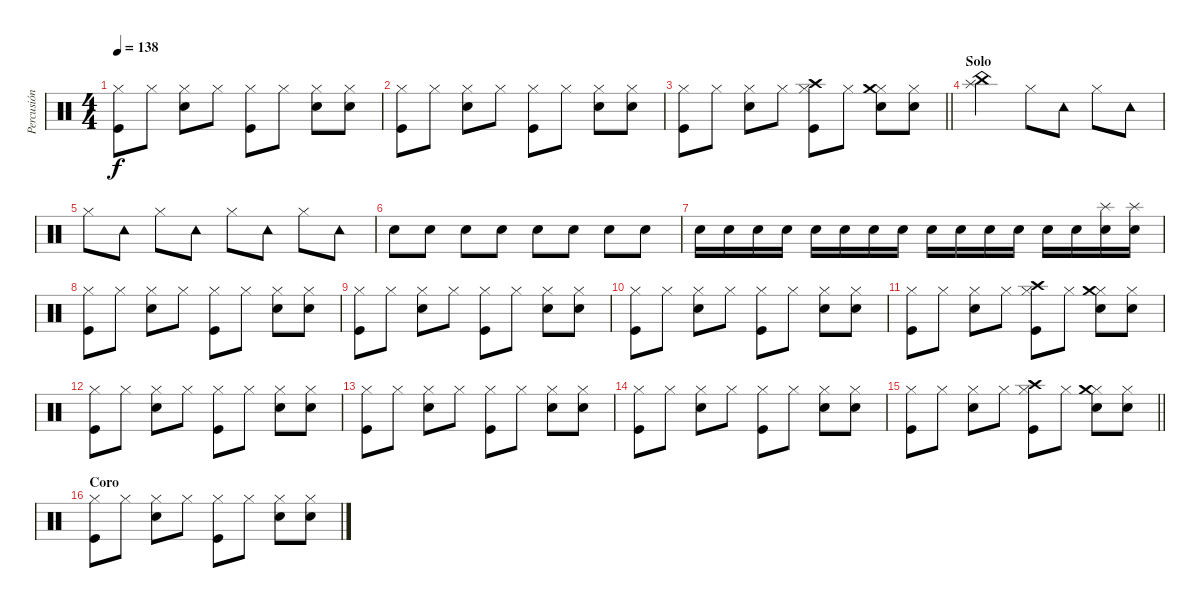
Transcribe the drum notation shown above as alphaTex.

\track ("Percusión" "Percusión") {instrument percussion}
\staff {score}
\articulation defaults
\ts (4 4)
\tempo 138
\clef neutral
\ks c
("Hi-Hat (closed)" "Kick (hit)").8{dy f} "Hi-Hat (closed)".8 ("Hi-Hat (closed)" "Snare (hit) 2").8 "Hi-Hat (closed)".8 ("Hi-Hat (closed)" "Kick (hit)").8 "Hi-Hat (closed)".8 ("Hi-Hat (closed)" "Snare (hit) 2").8 ("Hi-Hat (closed)" "Snare (hit) 2").8 |
("Hi-Hat (closed)" "Kick (hit)").8 "Hi-Hat (closed)".8 ("Hi-Hat (closed)" "Snare (hit) 2").8 "Hi-Hat (closed)".8 ("Hi-Hat (closed)" "Kick (hit)").8 "Hi-Hat (closed)".8 ("Hi-Hat (closed)" "Snare (hit) 2").8 ("Hi-Hat (closed)" "Snare (hit) 2").8 |
\barLineRight lightlight
("Hi-Hat (closed)" "Kick (hit)").8 "Hi-Hat (closed)".8 ("Hi-Hat (closed)" "Snare (hit) 2").8 "Hi-Hat (closed)".8 ("Hi-Hat (closed)" "Kick (hit)" "Crash high (hit)").8 "Hi-Hat (closed)".8 ("Hi-Hat (closed)" "Snare (hit) 2" "Crash medium (hit)").8 ("Hi-Hat (closed)" "Snare (hit) 2").8 |
\section ("" "Solo")
("Splash (hit)" "China (hit)").2 "Hi-Hat (closed)".8 "Tambourine (hit)".8 "Hi-Hat (closed)".8 "Tambourine (hit)".8 |
"Hi-Hat (closed)".8 "Tambourine (hit)".8 "Hi-Hat (closed)".8 "Tambourine (hit)".8 "Hi-Hat (closed)".8 "Tambourine (hit)".8 "Hi-Hat (closed)".8 "Tambourine (hit)".8 |
"Snare (hit) 2".8 "Snare (hit) 2".8 "Snare (hit) 2".8 "Snare (hit) 2".8 "Snare (hit) 2".8 "Snare (hit) 2".8 "Snare (hit) 2".8 "Snare (hit) 2".8 |
"Snare (hit) 2".16 "Snare (hit) 2".16 "Snare (hit) 2".16 "Snare (hit) 2".16 "Snare (hit) 2".16 "Snare (hit) 2".16 "Snare (hit) 2".16 "Snare (hit) 2".16 "Snare (hit) 2".16 "Snare (hit) 2".16 "Snare (hit) 2".16 "Snare (hit) 2".16 "Snare (hit) 2".16 "Snare (hit) 2".16 ("Splash (hit)" "Snare (hit) 2").16 ("Splash (hit)" "Snare (hit) 2").16 |
("Hi-Hat (closed)" "Kick (hit)").8 "Hi-Hat (closed)".8 ("Hi-Hat (closed)" "Snare (hit) 2").8 "Hi-Hat (closed)".8 ("Hi-Hat (closed)" "Kick (hit)").8 "Hi-Hat (closed)".8 ("Hi-Hat (closed)" "Snare (hit) 2").8 ("Hi-Hat (closed)" "Snare (hit) 2").8 |
("Hi-Hat (closed)" "Kick (hit)").8 "Hi-Hat (closed)".8 ("Hi-Hat (closed)" "Snare (hit) 2").8 "Hi-Hat (closed)".8 ("Hi-Hat (closed)" "Kick (hit)").8 "Hi-Hat (closed)".8 ("Hi-Hat (closed)" "Snare (hit) 2").8 ("Hi-Hat (closed)" "Snare (hit) 2").8 |
("Hi-Hat (closed)" "Kick (hit)").8 "Hi-Hat (closed)".8 ("Hi-Hat (closed)" "Snare (hit) 2").8 "Hi-Hat (closed)".8 ("Hi-Hat (closed)" "Kick (hit)").8 "Hi-Hat (closed)".8 ("Hi-Hat (closed)" "Snare (hit) 2").8 ("Hi-Hat (closed)" "Snare (hit) 2").8 |
("Hi-Hat (closed)" "Kick (hit)").8 "Hi-Hat (closed)".8 ("Hi-Hat (closed)" "Snare (hit) 2").8 "Hi-Hat (closed)".8 ("Hi-Hat (closed)" "Kick (hit)" "Crash high (hit)").8 "Hi-Hat (closed)".8 ("Hi-Hat (closed)" "Snare (hit) 2" "Crash medium (hit)").8 ("Hi-Hat (closed)" "Snare (hit) 2").8 |
("Hi-Hat (closed)" "Kick (hit)").8 "Hi-Hat (closed)".8 ("Hi-Hat (closed)" "Snare (hit) 2").8 "Hi-Hat (closed)".8 ("Hi-Hat (closed)" "Kick (hit)").8 "Hi-Hat (closed)".8 ("Hi-Hat (closed)" "Snare (hit) 2").8 ("Hi-Hat (closed)" "Snare (hit) 2").8 |
("Hi-Hat (closed)" "Kick (hit)").8 "Hi-Hat (closed)".8 ("Hi-Hat (closed)" "Snare (hit) 2").8 "Hi-Hat (closed)".8 ("Hi-Hat (closed)" "Kick (hit)").8 "Hi-Hat (closed)".8 ("Hi-Hat (closed)" "Snare (hit) 2").8 ("Hi-Hat (closed)" "Snare (hit) 2").8 |
("Hi-Hat (closed)" "Kick (hit)").8 "Hi-Hat (closed)".8 ("Hi-Hat (closed)" "Snare (hit) 2").8 "Hi-Hat (closed)".8 ("Hi-Hat (closed)" "Kick (hit)").8 "Hi-Hat (closed)".8 ("Hi-Hat (closed)" "Snare (hit) 2").8 ("Hi-Hat (closed)" "Snare (hit) 2").8 |
\barLineRight lightlight
("Hi-Hat (closed)" "Kick (hit)").8 "Hi-Hat (closed)".8 ("Hi-Hat (closed)" "Snare (hit) 2").8 "Hi-Hat (closed)".8 ("Hi-Hat (closed)" "Kick (hit)" "Crash high (hit)").8 "Hi-Hat (closed)".8 ("Hi-Hat (closed)" "Snare (hit) 2" "Crash medium (hit)").8 ("Hi-Hat (closed)" "Snare (hit) 2").8 |
\section ("" "Coro")
("Hi-Hat (closed)" "Kick (hit)").8 "Hi-Hat (closed)".8 ("Hi-Hat (closed)" "Snare (hit) 2").8 "Hi-Hat (closed)".8 ("Hi-Hat (closed)" "Kick (hit)").8 "Hi-Hat (closed)".8 ("Hi-Hat (closed)" "Snare (hit) 2").8 ("Hi-Hat (closed)" "Snare (hit) 2").8
